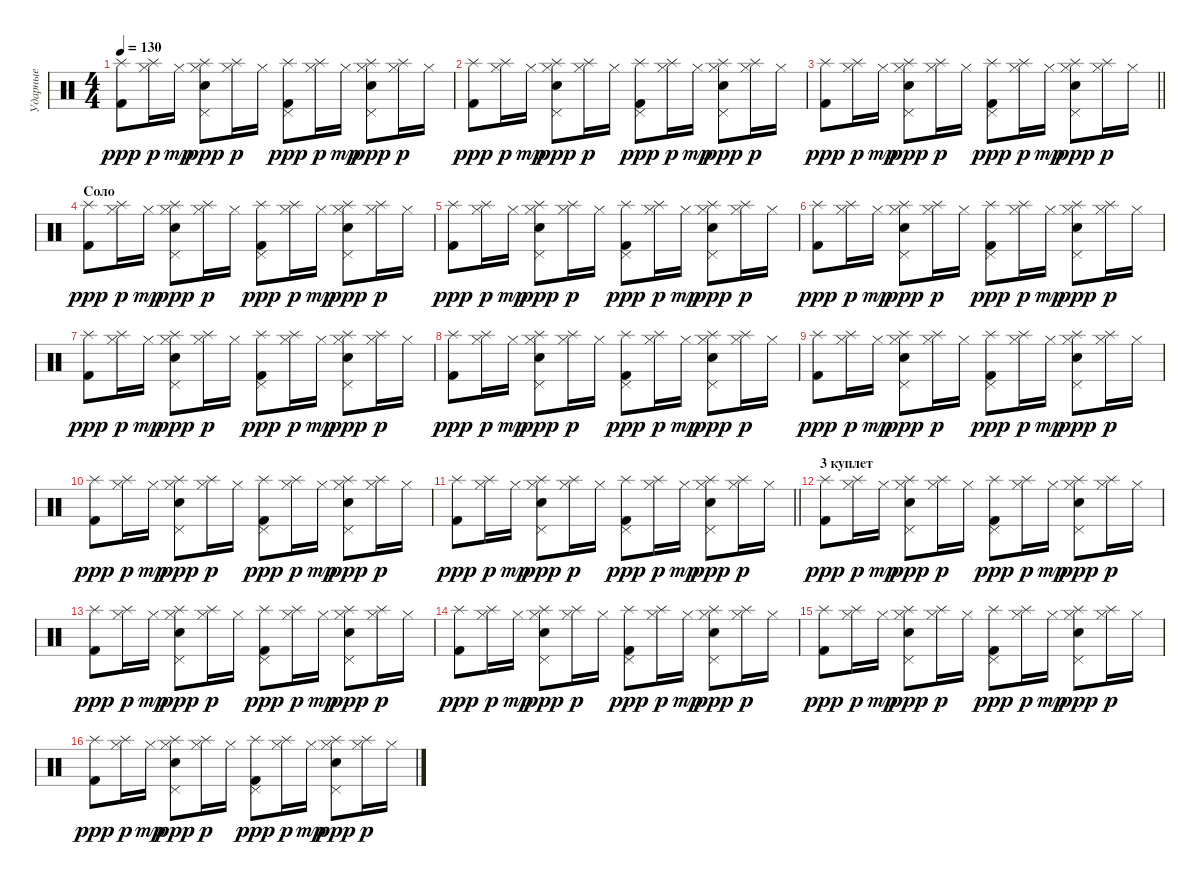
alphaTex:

\track ("Ударные" "Ударные") {instrument percussion bank 17}
\staff {score}
\articulation defaults
\ts (4 4)
\tempo 130
\clef neutral
\ks c
("Kick (hit) 2" "Splash (hit)").8{dy ppp} ("Hi-Hat (closed)" "Splash (hit)").16{dy p} "Hi-Hat (closed)".16{dy mp} ("Snare (hit) 2" "Pedal Hi-Hat (hit)" "Hi-Hat (closed)" "Splash (hit)").8{dy ppp} ("Hi-Hat (closed)" "Splash (hit)").16{dy p} "Hi-Hat (closed)".16 ("Kick (hit) 2" "Pedal Hi-Hat (hit)" "Splash (hit)").8{dy ppp} ("Hi-Hat (closed)" "Splash (hit)").16{dy p} "Hi-Hat (closed)".16{dy mp} ("Snare (hit) 2" "Pedal Hi-Hat (hit)" "Hi-Hat (closed)" "Splash (hit)").8{dy ppp} ("Hi-Hat (closed)" "Splash (hit)").16{dy p} "Hi-Hat (closed)".16 |
("Kick (hit) 2" "Splash (hit)").8{dy ppp} ("Hi-Hat (closed)" "Splash (hit)").16{dy p} "Hi-Hat (closed)".16{dy mp} ("Snare (hit) 2" "Pedal Hi-Hat (hit)" "Hi-Hat (closed)" "Splash (hit)").8{dy ppp} ("Hi-Hat (closed)" "Splash (hit)").16{dy p} "Hi-Hat (closed)".16 ("Kick (hit) 2" "Pedal Hi-Hat (hit)" "Splash (hit)").8{dy ppp} ("Hi-Hat (closed)" "Splash (hit)").16{dy p} "Hi-Hat (closed)".16{dy mp} ("Snare (hit) 2" "Pedal Hi-Hat (hit)" "Hi-Hat (closed)" "Splash (hit)").8{dy ppp} ("Hi-Hat (closed)" "Splash (hit)").16{dy p} "Hi-Hat (closed)".16 |
\barLineRight lightlight
("Kick (hit) 2" "Splash (hit)").8{dy ppp} ("Hi-Hat (closed)" "Splash (hit)").16{dy p} "Hi-Hat (closed)".16{dy mp} ("Snare (hit) 2" "Pedal Hi-Hat (hit)" "Hi-Hat (closed)" "Splash (hit)").8{dy ppp} ("Hi-Hat (closed)" "Splash (hit)").16{dy p} "Hi-Hat (closed)".16 ("Kick (hit) 2" "Pedal Hi-Hat (hit)" "Splash (hit)").8{dy ppp} ("Hi-Hat (closed)" "Splash (hit)").16{dy p} "Hi-Hat (closed)".16{dy mp} ("Snare (hit) 2" "Pedal Hi-Hat (hit)" "Hi-Hat (closed)" "Splash (hit)").8{dy ppp} ("Hi-Hat (closed)" "Splash (hit)").16{dy p} "Hi-Hat (closed)".16 |
\section ("" "Соло")
("Kick (hit) 2" "Splash (hit)").8{dy ppp} ("Hi-Hat (closed)" "Splash (hit)").16{dy p} "Hi-Hat (closed)".16{dy mp} ("Snare (hit) 2" "Pedal Hi-Hat (hit)" "Hi-Hat (closed)" "Splash (hit)").8{dy ppp} ("Hi-Hat (closed)" "Splash (hit)").16{dy p} "Hi-Hat (closed)".16 ("Kick (hit) 2" "Pedal Hi-Hat (hit)" "Splash (hit)").8{dy ppp} ("Hi-Hat (closed)" "Splash (hit)").16{dy p} "Hi-Hat (closed)".16{dy mp} ("Snare (hit) 2" "Pedal Hi-Hat (hit)" "Hi-Hat (closed)" "Splash (hit)").8{dy ppp} ("Hi-Hat (closed)" "Splash (hit)").16{dy p} "Hi-Hat (closed)".16 |
("Kick (hit) 2" "Splash (hit)").8{dy ppp} ("Hi-Hat (closed)" "Splash (hit)").16{dy p} "Hi-Hat (closed)".16{dy mp} ("Snare (hit) 2" "Pedal Hi-Hat (hit)" "Hi-Hat (closed)" "Splash (hit)").8{dy ppp} ("Hi-Hat (closed)" "Splash (hit)").16{dy p} "Hi-Hat (closed)".16 ("Kick (hit) 2" "Pedal Hi-Hat (hit)" "Splash (hit)").8{dy ppp} ("Hi-Hat (closed)" "Splash (hit)").16{dy p} "Hi-Hat (closed)".16{dy mp} ("Snare (hit) 2" "Pedal Hi-Hat (hit)" "Hi-Hat (closed)" "Splash (hit)").8{dy ppp} ("Hi-Hat (closed)" "Splash (hit)").16{dy p} "Hi-Hat (closed)".16 |
("Kick (hit) 2" "Splash (hit)").8{dy ppp} ("Hi-Hat (closed)" "Splash (hit)").16{dy p} "Hi-Hat (closed)".16{dy mp} ("Snare (hit) 2" "Pedal Hi-Hat (hit)" "Hi-Hat (closed)" "Splash (hit)").8{dy ppp} ("Hi-Hat (closed)" "Splash (hit)").16{dy p} "Hi-Hat (closed)".16 ("Kick (hit) 2" "Pedal Hi-Hat (hit)" "Splash (hit)").8{dy ppp} ("Hi-Hat (closed)" "Splash (hit)").16{dy p} "Hi-Hat (closed)".16{dy mp} ("Snare (hit) 2" "Pedal Hi-Hat (hit)" "Hi-Hat (closed)" "Splash (hit)").8{dy ppp} ("Hi-Hat (closed)" "Splash (hit)").16{dy p} "Hi-Hat (closed)".16 |
("Kick (hit) 2" "Splash (hit)").8{dy ppp} ("Hi-Hat (closed)" "Splash (hit)").16{dy p} "Hi-Hat (closed)".16{dy mp} ("Snare (hit) 2" "Pedal Hi-Hat (hit)" "Hi-Hat (closed)" "Splash (hit)").8{dy ppp} ("Hi-Hat (closed)" "Splash (hit)").16{dy p} "Hi-Hat (closed)".16 ("Kick (hit) 2" "Pedal Hi-Hat (hit)" "Splash (hit)").8{dy ppp} ("Hi-Hat (closed)" "Splash (hit)").16{dy p} "Hi-Hat (closed)".16{dy mp} ("Snare (hit) 2" "Pedal Hi-Hat (hit)" "Hi-Hat (closed)" "Splash (hit)").8{dy ppp} ("Hi-Hat (closed)" "Splash (hit)").16{dy p} "Hi-Hat (closed)".16 |
("Kick (hit) 2" "Splash (hit)").8{dy ppp} ("Hi-Hat (closed)" "Splash (hit)").16{dy p} "Hi-Hat (closed)".16{dy mp} ("Snare (hit) 2" "Pedal Hi-Hat (hit)" "Hi-Hat (closed)" "Splash (hit)").8{dy ppp} ("Hi-Hat (closed)" "Splash (hit)").16{dy p} "Hi-Hat (closed)".16 ("Kick (hit) 2" "Pedal Hi-Hat (hit)" "Splash (hit)").8{dy ppp} ("Hi-Hat (closed)" "Splash (hit)").16{dy p} "Hi-Hat (closed)".16{dy mp} ("Snare (hit) 2" "Pedal Hi-Hat (hit)" "Hi-Hat (closed)" "Splash (hit)").8{dy ppp} ("Hi-Hat (closed)" "Splash (hit)").16{dy p} "Hi-Hat (closed)".16 |
("Kick (hit) 2" "Splash (hit)").8{dy ppp} ("Hi-Hat (closed)" "Splash (hit)").16{dy p} "Hi-Hat (closed)".16{dy mp} ("Snare (hit) 2" "Pedal Hi-Hat (hit)" "Hi-Hat (closed)" "Splash (hit)").8{dy ppp} ("Hi-Hat (closed)" "Splash (hit)").16{dy p} "Hi-Hat (closed)".16 ("Kick (hit) 2" "Pedal Hi-Hat (hit)" "Splash (hit)").8{dy ppp} ("Hi-Hat (closed)" "Splash (hit)").16{dy p} "Hi-Hat (closed)".16{dy mp} ("Snare (hit) 2" "Pedal Hi-Hat (hit)" "Hi-Hat (closed)" "Splash (hit)").8{dy ppp} ("Hi-Hat (closed)" "Splash (hit)").16{dy p} "Hi-Hat (closed)".16 |
("Kick (hit) 2" "Splash (hit)").8{dy ppp} ("Hi-Hat (closed)" "Splash (hit)").16{dy p} "Hi-Hat (closed)".16{dy mp} ("Snare (hit) 2" "Pedal Hi-Hat (hit)" "Hi-Hat (closed)" "Splash (hit)").8{dy ppp} ("Hi-Hat (closed)" "Splash (hit)").16{dy p} "Hi-Hat (closed)".16 ("Kick (hit) 2" "Pedal Hi-Hat (hit)" "Splash (hit)").8{dy ppp} ("Hi-Hat (closed)" "Splash (hit)").16{dy p} "Hi-Hat (closed)".16{dy mp} ("Snare (hit) 2" "Pedal Hi-Hat (hit)" "Hi-Hat (closed)" "Splash (hit)").8{dy ppp} ("Hi-Hat (closed)" "Splash (hit)").16{dy p} "Hi-Hat (closed)".16 |
\barLineRight lightlight
("Kick (hit) 2" "Splash (hit)").8{dy ppp} ("Hi-Hat (closed)" "Splash (hit)").16{dy p} "Hi-Hat (closed)".16{dy mp} ("Snare (hit) 2" "Pedal Hi-Hat (hit)" "Hi-Hat (closed)" "Splash (hit)").8{dy ppp} ("Hi-Hat (closed)" "Splash (hit)").16{dy p} "Hi-Hat (closed)".16 ("Kick (hit) 2" "Pedal Hi-Hat (hit)" "Splash (hit)").8{dy ppp} ("Hi-Hat (closed)" "Splash (hit)").16{dy p} "Hi-Hat (closed)".16{dy mp} ("Snare (hit) 2" "Pedal Hi-Hat (hit)" "Hi-Hat (closed)" "Splash (hit)").8{dy ppp} ("Hi-Hat (closed)" "Splash (hit)").16{dy p} "Hi-Hat (closed)".16 |
\section ("" "3 куплет")
("Kick (hit) 2" "Splash (hit)").8{dy ppp} ("Hi-Hat (closed)" "Splash (hit)").16{dy p} "Hi-Hat (closed)".16{dy mp} ("Snare (hit) 2" "Pedal Hi-Hat (hit)" "Hi-Hat (closed)" "Splash (hit)").8{dy ppp} ("Hi-Hat (closed)" "Splash (hit)").16{dy p} "Hi-Hat (closed)".16 ("Kick (hit) 2" "Pedal Hi-Hat (hit)" "Splash (hit)").8{dy ppp} ("Hi-Hat (closed)" "Splash (hit)").16{dy p} "Hi-Hat (closed)".16{dy mp} ("Snare (hit) 2" "Pedal Hi-Hat (hit)" "Hi-Hat (closed)" "Splash (hit)").8{dy ppp} ("Hi-Hat (closed)" "Splash (hit)").16{dy p} "Hi-Hat (closed)".16 |
("Kick (hit) 2" "Splash (hit)").8{dy ppp} ("Hi-Hat (closed)" "Splash (hit)").16{dy p} "Hi-Hat (closed)".16{dy mp} ("Snare (hit) 2" "Pedal Hi-Hat (hit)" "Hi-Hat (closed)" "Splash (hit)").8{dy ppp} ("Hi-Hat (closed)" "Splash (hit)").16{dy p} "Hi-Hat (closed)".16 ("Kick (hit) 2" "Pedal Hi-Hat (hit)" "Splash (hit)").8{dy ppp} ("Hi-Hat (closed)" "Splash (hit)").16{dy p} "Hi-Hat (closed)".16{dy mp} ("Snare (hit) 2" "Pedal Hi-Hat (hit)" "Hi-Hat (closed)" "Splash (hit)").8{dy ppp} ("Hi-Hat (closed)" "Splash (hit)").16{dy p} "Hi-Hat (closed)".16 |
("Kick (hit) 2" "Splash (hit)").8{dy ppp} ("Hi-Hat (closed)" "Splash (hit)").16{dy p} "Hi-Hat (closed)".16{dy mp} ("Snare (hit) 2" "Pedal Hi-Hat (hit)" "Hi-Hat (closed)" "Splash (hit)").8{dy ppp} ("Hi-Hat (closed)" "Splash (hit)").16{dy p} "Hi-Hat (closed)".16 ("Kick (hit) 2" "Pedal Hi-Hat (hit)" "Splash (hit)").8{dy ppp} ("Hi-Hat (closed)" "Splash (hit)").16{dy p} "Hi-Hat (closed)".16{dy mp} ("Snare (hit) 2" "Pedal Hi-Hat (hit)" "Hi-Hat (closed)" "Splash (hit)").8{dy ppp} ("Hi-Hat (closed)" "Splash (hit)").16{dy p} "Hi-Hat (closed)".16 |
("Kick (hit) 2" "Splash (hit)").8{dy ppp} ("Hi-Hat (closed)" "Splash (hit)").16{dy p} "Hi-Hat (closed)".16{dy mp} ("Snare (hit) 2" "Pedal Hi-Hat (hit)" "Hi-Hat (closed)" "Splash (hit)").8{dy ppp} ("Hi-Hat (closed)" "Splash (hit)").16{dy p} "Hi-Hat (closed)".16 ("Kick (hit) 2" "Pedal Hi-Hat (hit)" "Splash (hit)").8{dy ppp} ("Hi-Hat (closed)" "Splash (hit)").16{dy p} "Hi-Hat (closed)".16{dy mp} ("Snare (hit) 2" "Pedal Hi-Hat (hit)" "Hi-Hat (closed)" "Splash (hit)").8{dy ppp} ("Hi-Hat (closed)" "Splash (hit)").16{dy p} "Hi-Hat (closed)".16 |
("Kick (hit) 2" "Splash (hit)").8{dy ppp} ("Hi-Hat (closed)" "Splash (hit)").16{dy p} "Hi-Hat (closed)".16{dy mp} ("Snare (hit) 2" "Pedal Hi-Hat (hit)" "Hi-Hat (closed)" "Splash (hit)").8{dy ppp} ("Hi-Hat (closed)" "Splash (hit)").16{dy p} "Hi-Hat (closed)".16 ("Kick (hit) 2" "Pedal Hi-Hat (hit)" "Splash (hit)").8{dy ppp} ("Hi-Hat (closed)" "Splash (hit)").16{dy p} "Hi-Hat (closed)".16{dy mp} ("Snare (hit) 2" "Pedal Hi-Hat (hit)" "Hi-Hat (closed)" "Splash (hit)").8{dy ppp} ("Hi-Hat (closed)" "Splash (hit)").16{dy p} "Hi-Hat (closed)".16
